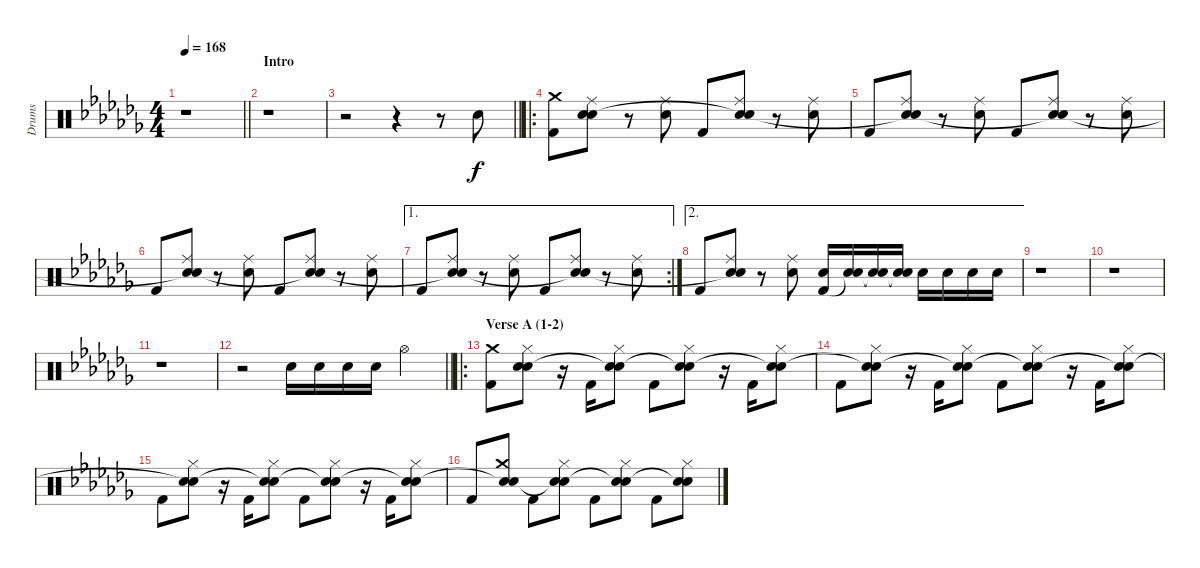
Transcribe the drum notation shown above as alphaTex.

\track ("Drums" "Drums") {instrument percussion}
\staff {score}
\articulation defaults
\ts (4 4)
\tempo 168
\clef neutral
\barLineRight lightlight
\ks abminor
r.1{dy f} |
\section ("" "Intro")
r.1 |
\barLineRight lightlight
r.2 r.4 r.8 "Electric Snare (hit)".8 |
\ro
("Crash medium (hit)" "Kick (hit) 2").8 ("Ride (middle)" "Electric Snare (hit)" "Snare (hit)").8 r.8 ("Ride (middle)" "Electric Snare (hit)").8 "Kick (hit) 2".8 ("Ride (middle)" "Electric Snare (hit)" "Snare (hit)"{t}).8 r.8 ("Ride (middle)" "Electric Snare (hit)").8 |
"Kick (hit) 2".8 ("Ride (middle)" "Electric Snare (hit)" "Snare (hit)"{t}).8 r.8 ("Ride (middle)" "Electric Snare (hit)").8 "Kick (hit) 2".8 ("Ride (middle)" "Electric Snare (hit)" "Snare (hit)"{t}).8 r.8 ("Ride (middle)" "Electric Snare (hit)").8 |
"Kick (hit) 2".8 ("Ride (middle)" "Electric Snare (hit)" "Snare (hit)"{t}).8 r.8 ("Ride (middle)" "Electric Snare (hit)").8 "Kick (hit) 2".8 ("Ride (middle)" "Electric Snare (hit)" "Snare (hit)"{t}).8 r.8 ("Ride (middle)" "Electric Snare (hit)").8 |
\ae 1
\rc 2 "Kick (hit) 2".8
("Ride (middle)" "Electric Snare (hit)" "Snare (hit)"{t}).8 r.8 ("Ride (middle)" "Electric Snare (hit)").8 "Kick (hit) 2".8 ("Ride (middle)" "Electric Snare (hit)" "Snare (hit)"{t}).8 r.8 ("Ride (middle)" "Electric Snare (hit)").8 |
\ae 2 "Kick (hit) 2".8
("Ride (middle)" "Electric Snare (hit)" "Snare (hit)"{t}).8 r.8 ("Ride (middle)" "Electric Snare (hit)").8 ("Electric Snare (hit)" "Kick (hit) 2").16 ("Electric Snare (hit)" "Snare (hit)"{t}).16 ("Electric Snare (hit)" "Snare (hit)"{t}).16 ("Electric Snare (hit)" "Snare (hit)"{t}).16 "Electric Snare (hit)".16 "Electric Snare (hit)".16 "Electric Snare (hit)".16 "Electric Snare (hit)".16 |
r.1 |
r.1 |
r.1 |
\barLineRight lightlight
r.2 "Electric Snare (hit)".16 "Electric Snare (hit)".16 "Electric Snare (hit)".16 "Electric Snare (hit)".16 "Hi-Hat (open)".4 |
\ro
\section ("" "Verse A (1-2)")
("Crash medium (hit)" "Kick (hit) 2").8 ("Hi-Hat (closed)" "Electric Snare (hit)" "Snare (hit)").8 r.16 "Kick (hit) 2".16 ("Hi-Hat (closed)" "Electric Snare (hit)" "Snare (hit)"{t}).8 "Kick (hit) 2".8 ("Hi-Hat (closed)" "Electric Snare (hit)" "Snare (hit)"{t}).8 r.16 "Kick (hit) 2".16 ("Hi-Hat (closed)" "Electric Snare (hit)" "Snare (hit)"{t}).8 |
"Kick (hit) 2".8 ("Hi-Hat (closed)" "Electric Snare (hit)" "Snare (hit)"{t}).8 r.16 "Kick (hit) 2".16 ("Hi-Hat (closed)" "Electric Snare (hit)" "Snare (hit)"{t}).8 "Kick (hit) 2".8 ("Hi-Hat (closed)" "Electric Snare (hit)" "Snare (hit)"{t}).8 r.16 "Kick (hit) 2".16 ("Hi-Hat (closed)" "Electric Snare (hit)" "Snare (hit)"{t}).8 |
"Kick (hit) 2".8 ("Hi-Hat (closed)" "Electric Snare (hit)" "Snare (hit)"{t}).8 r.16 "Kick (hit) 2".16 ("Hi-Hat (closed)" "Electric Snare (hit)" "Snare (hit)"{t}).8 "Kick (hit) 2".8 ("Hi-Hat (closed)" "Electric Snare (hit)" "Snare (hit)"{t}).8 r.16 "Kick (hit) 2".16 ("Hi-Hat (closed)" "Electric Snare (hit)" "Snare (hit)"{t}).8 |
"Kick (hit) 2".8 ("Crash medium (hit)" "Electric Snare (hit)" "Snare (hit)"{t}).8 "Kick (hit) 2".8 ("Hi-Hat (closed)" "Electric Snare (hit)" "Snare (hit)"{t}).8 "Kick (hit) 2".8 ("Hi-Hat (closed)" "Electric Snare (hit)" "Snare (hit)"{t}).8 "Kick (hit) 2".8 ("Hi-Hat (closed)" "Electric Snare (hit)" "Snare (hit)"{t}).8
